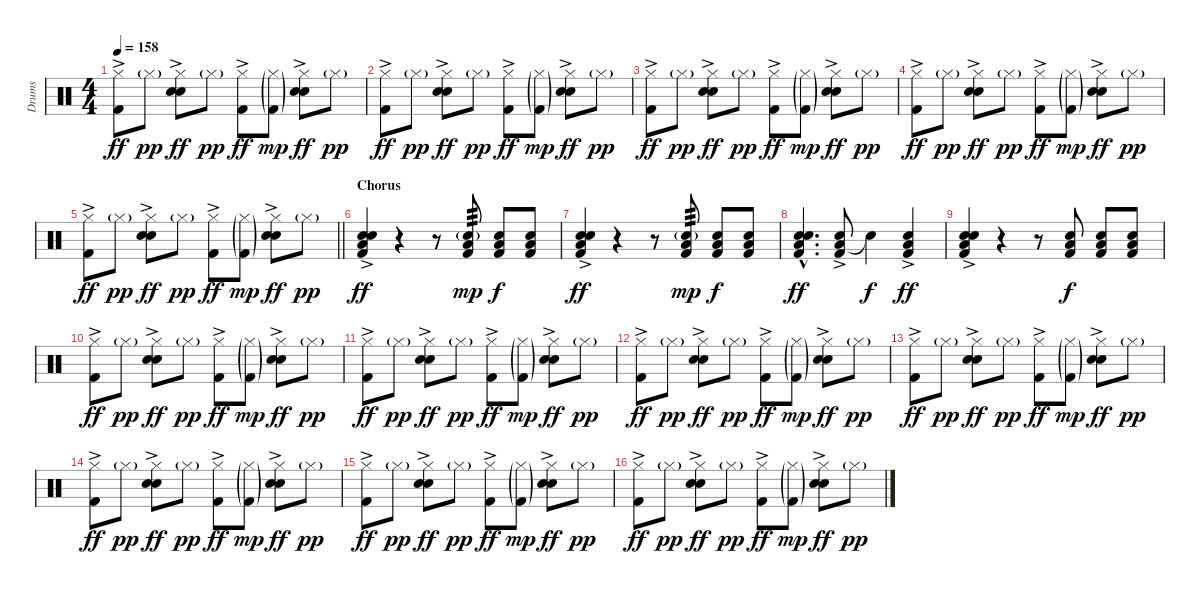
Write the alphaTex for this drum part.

\track ("Drums" "Drums") {instrument percussion}
\staff {score}
\articulation defaults
\ts (4 4)
\tempo 158
\clef neutral
\ks c
("Hi-Hat (closed)" "Kick (hit) 2"{ac}).8{dy ff} "Hi-Hat (closed)"{g}.8{dy pp} ("Hi-Hat (closed)" "Electric Snare (hit)"{ac} "Snare (hit) 2").8{dy ff} "Hi-Hat (closed)"{g}.8{dy pp} ("Hi-Hat (closed)" "Kick (hit) 2"{ac}).8{dy ff} ("Hi-Hat (closed)"{g} "Kick (hit) 2"{g}).8{dy mp} ("Hi-Hat (closed)" "Electric Snare (hit)"{ac} "Snare (hit) 2").8{dy ff} "Hi-Hat (closed)"{g}.8{dy pp} |
("Hi-Hat (closed)" "Kick (hit) 2"{ac}).8{dy ff} "Hi-Hat (closed)"{g}.8{dy pp} ("Hi-Hat (closed)" "Electric Snare (hit)"{ac} "Snare (hit) 2").8{dy ff} "Hi-Hat (closed)"{g}.8{dy pp} ("Hi-Hat (closed)" "Kick (hit) 2"{ac}).8{dy ff} ("Hi-Hat (closed)"{g} "Kick (hit) 2"{g}).8{dy mp} ("Hi-Hat (closed)" "Electric Snare (hit)"{ac} "Snare (hit) 2").8{dy ff} "Hi-Hat (closed)"{g}.8{dy pp} |
("Hi-Hat (closed)" "Kick (hit) 2"{ac}).8{dy ff} "Hi-Hat (closed)"{g}.8{dy pp} ("Hi-Hat (closed)" "Electric Snare (hit)"{ac} "Snare (hit) 2").8{dy ff} "Hi-Hat (closed)"{g}.8{dy pp} ("Hi-Hat (closed)" "Kick (hit) 2"{ac}).8{dy ff} ("Hi-Hat (closed)"{g} "Kick (hit) 2"{g}).8{dy mp} ("Hi-Hat (closed)" "Electric Snare (hit)"{ac} "Snare (hit) 2").8{dy ff} "Hi-Hat (closed)"{g}.8{dy pp} |
("Hi-Hat (closed)" "Kick (hit) 2"{ac}).8{dy ff} "Hi-Hat (closed)"{g}.8{dy pp} ("Hi-Hat (closed)" "Electric Snare (hit)"{ac} "Snare (hit) 2").8{dy ff} "Hi-Hat (closed)"{g}.8{dy pp} ("Hi-Hat (closed)" "Kick (hit) 2"{ac}).8{dy ff} ("Hi-Hat (closed)"{g} "Kick (hit) 2"{g}).8{dy mp} ("Hi-Hat (closed)" "Electric Snare (hit)"{ac} "Snare (hit) 2").8{dy ff} "Hi-Hat (closed)"{g}.8{dy pp} |
\barLineRight lightlight
("Hi-Hat (closed)" "Kick (hit) 2"{ac}).8{dy ff} "Hi-Hat (closed)"{g}.8{dy pp} ("Hi-Hat (closed)" "Electric Snare (hit)"{ac} "Snare (hit) 2").8{dy ff} "Hi-Hat (closed)"{g}.8{dy pp} ("Hi-Hat (closed)" "Kick (hit) 2"{ac}).8{dy ff} ("Hi-Hat (closed)"{g} "Kick (hit) 2"{g}).8{dy mp} ("Hi-Hat (closed)" "Electric Snare (hit)"{ac} "Snare (hit) 2").8{dy ff} "Hi-Hat (closed)"{g}.8{dy pp} |
\section ("" "Chorus")
("Low Floor Tom (hit)" "Electric Snare (hit)"{ac} "Snare (hit) 2" "Kick (hit) 2").4{dy ff} r.4 r.8 ("Low Floor Tom (hit)" "Snare (hit) 2"{g} "Kick (hit) 2").8{tp 3 dy mp} ("Low Floor Tom (hit)" "Snare (hit) 2" "Kick (hit) 2").8{dy f} ("Low Floor Tom (hit)" "Snare (hit) 2" "Kick (hit) 2").8 |
("Low Floor Tom (hit)" "Electric Snare (hit)"{ac} "Snare (hit) 2" "Kick (hit) 2").4{dy ff} r.4 r.8 ("Low Floor Tom (hit)" "Snare (hit) 2"{g} "Kick (hit) 2").8{tp 3 dy mp} ("Low Floor Tom (hit)" "Snare (hit) 2" "Kick (hit) 2").8{dy f} ("Low Floor Tom (hit)" "Snare (hit) 2" "Kick (hit) 2").8 |
("Low Floor Tom (hit)"{hac} "Electric Snare (hit)"{hac} "Snare (hit) 2"{hac} "Kick (hit) 2"{hac}).4{d dy ff} ("Low Floor Tom (hit)" "Snare (hit) 2" "Kick (hit) 2"{ac}).8 "Snare (hit)"{t}.4{dy f} ("Low Floor Tom (hit)" "Snare (hit) 2" "Kick (hit) 2"{ac}).4{dy ff} |
("Low Floor Tom (hit)" "Electric Snare (hit)"{ac} "Snare (hit) 2" "Kick (hit) 2").4 r.4 r.8 ("Low Floor Tom (hit)" "Snare (hit) 2" "Kick (hit) 2").8{dy f} ("Low Floor Tom (hit)" "Snare (hit) 2" "Kick (hit) 2").8 ("Low Floor Tom (hit)" "Snare (hit) 2" "Kick (hit) 2").8 |
("Hi-Hat (closed)" "Kick (hit) 2"{ac}).8{dy ff} "Hi-Hat (closed)"{g}.8{dy pp} ("Hi-Hat (closed)" "Electric Snare (hit)"{ac} "Snare (hit) 2").8{dy ff} "Hi-Hat (closed)"{g}.8{dy pp} ("Hi-Hat (closed)" "Kick (hit) 2"{ac}).8{dy ff} ("Hi-Hat (closed)"{g} "Kick (hit) 2"{g}).8{dy mp} ("Hi-Hat (closed)" "Electric Snare (hit)"{ac} "Snare (hit) 2").8{dy ff} "Hi-Hat (closed)"{g}.8{dy pp} |
("Hi-Hat (closed)" "Kick (hit) 2"{ac}).8{dy ff} "Hi-Hat (closed)"{g}.8{dy pp} ("Hi-Hat (closed)" "Electric Snare (hit)"{ac} "Snare (hit) 2").8{dy ff} "Hi-Hat (closed)"{g}.8{dy pp} ("Hi-Hat (closed)" "Kick (hit) 2"{ac}).8{dy ff} ("Hi-Hat (closed)"{g} "Kick (hit) 2"{g}).8{dy mp} ("Hi-Hat (closed)" "Electric Snare (hit)"{ac} "Snare (hit) 2").8{dy ff} "Hi-Hat (closed)"{g}.8{dy pp} |
("Hi-Hat (closed)" "Kick (hit) 2"{ac}).8{dy ff} "Hi-Hat (closed)"{g}.8{dy pp} ("Hi-Hat (closed)" "Electric Snare (hit)"{ac} "Snare (hit) 2").8{dy ff} "Hi-Hat (closed)"{g}.8{dy pp} ("Hi-Hat (closed)" "Kick (hit) 2"{ac}).8{dy ff} ("Hi-Hat (closed)"{g} "Kick (hit) 2"{g}).8{dy mp} ("Hi-Hat (closed)" "Electric Snare (hit)"{ac} "Snare (hit) 2").8{dy ff} "Hi-Hat (closed)"{g}.8{dy pp} |
("Hi-Hat (closed)" "Kick (hit) 2"{ac}).8{dy ff} "Hi-Hat (closed)"{g}.8{dy pp} ("Hi-Hat (closed)" "Electric Snare (hit)"{ac} "Snare (hit) 2").8{dy ff} "Hi-Hat (closed)"{g}.8{dy pp} ("Hi-Hat (closed)" "Kick (hit) 2"{ac}).8{dy ff} ("Hi-Hat (closed)"{g} "Kick (hit) 2"{g}).8{dy mp} ("Hi-Hat (closed)" "Electric Snare (hit)"{ac} "Snare (hit) 2").8{dy ff} "Hi-Hat (closed)"{g}.8{dy pp} |
("Hi-Hat (closed)" "Kick (hit) 2"{ac}).8{dy ff} "Hi-Hat (closed)"{g}.8{dy pp} ("Hi-Hat (closed)" "Electric Snare (hit)"{ac} "Snare (hit) 2").8{dy ff} "Hi-Hat (closed)"{g}.8{dy pp} ("Hi-Hat (closed)" "Kick (hit) 2"{ac}).8{dy ff} ("Hi-Hat (closed)"{g} "Kick (hit) 2"{g}).8{dy mp} ("Hi-Hat (closed)" "Electric Snare (hit)"{ac} "Snare (hit) 2").8{dy ff} "Hi-Hat (closed)"{g}.8{dy pp} |
("Hi-Hat (closed)" "Kick (hit) 2"{ac}).8{dy ff} "Hi-Hat (closed)"{g}.8{dy pp} ("Hi-Hat (closed)" "Electric Snare (hit)"{ac} "Snare (hit) 2").8{dy ff} "Hi-Hat (closed)"{g}.8{dy pp} ("Hi-Hat (closed)" "Kick (hit) 2"{ac}).8{dy ff} ("Hi-Hat (closed)"{g} "Kick (hit) 2"{g}).8{dy mp} ("Hi-Hat (closed)" "Electric Snare (hit)"{ac} "Snare (hit) 2").8{dy ff} "Hi-Hat (closed)"{g}.8{dy pp} |
("Hi-Hat (closed)" "Kick (hit) 2"{ac}).8{dy ff} "Hi-Hat (closed)"{g}.8{dy pp} ("Hi-Hat (closed)" "Electric Snare (hit)"{ac} "Snare (hit) 2").8{dy ff} "Hi-Hat (closed)"{g}.8{dy pp} ("Hi-Hat (closed)" "Kick (hit) 2"{ac}).8{dy ff} ("Hi-Hat (closed)"{g} "Kick (hit) 2"{g}).8{dy mp} ("Hi-Hat (closed)" "Electric Snare (hit)"{ac} "Snare (hit) 2").8{dy ff} "Hi-Hat (closed)"{g}.8{dy pp}
